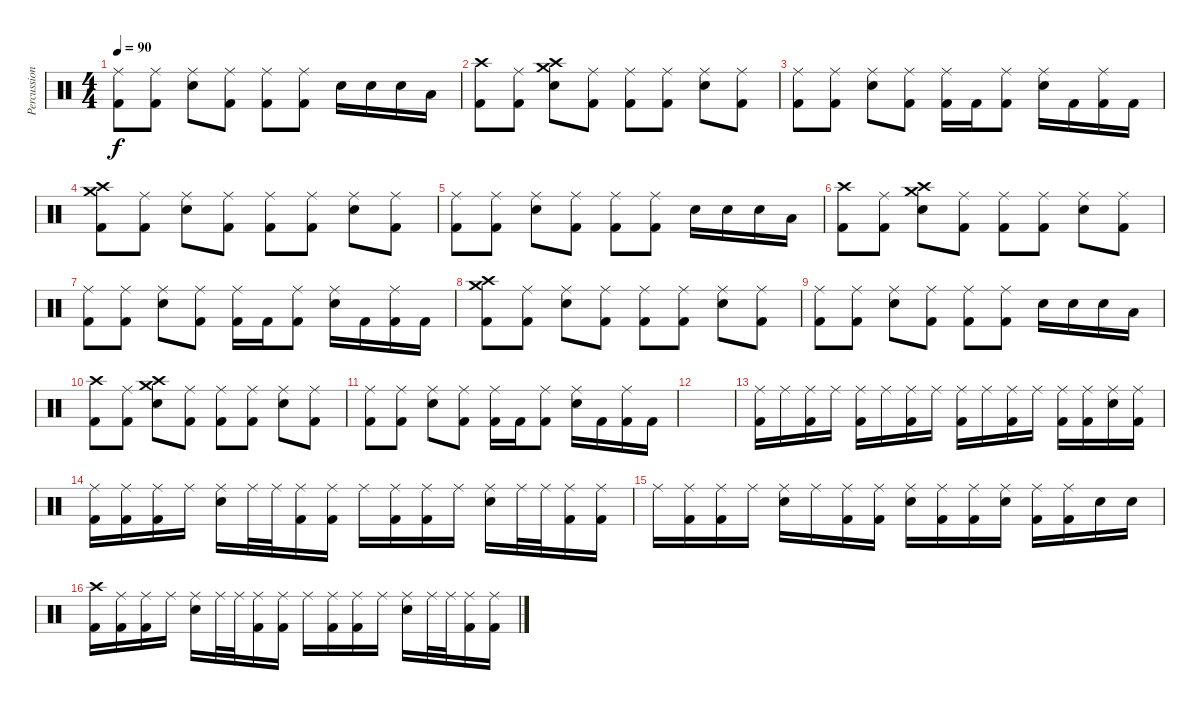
\track ("Percussion" "Percussion") {instrument percussion}
\staff {score}
\articulation defaults
\ts (4 4)
\tempo 90
\clef neutral
\ks c
("Ride (middle)" "Kick (hit) 2").8{dy f} ("Ride (middle)" "Kick (hit) 2").8 ("Ride (middle)" "Electric Snare (hit)").8 ("Ride (middle)" "Kick (hit) 2").8 ("Ride (middle)" "Kick (hit) 2").8 ("Ride (middle)" "Kick (hit) 2").8 "Electric Snare (hit)".16 "Electric Snare (hit)".16 "Electric Snare (hit)".16 "Low Tom (hit)".16 |
("Crash high (hit)" "Kick (hit) 2").8 ("Ride (middle)" "Kick (hit) 2").8 ("Crash medium (hit)" "Crash high (hit)" "Electric Snare (hit)").8 ("Ride (middle)" "Kick (hit) 2").8 ("Ride (middle)" "Kick (hit) 2").8 ("Ride (middle)" "Kick (hit) 2").8 ("Ride (middle)" "Electric Snare (hit)").8 ("Ride (middle)" "Kick (hit) 2").8 |
("Ride (middle)" "Kick (hit) 2").8 ("Ride (middle)" "Kick (hit) 2").8 ("Ride (middle)" "Electric Snare (hit)").8 ("Ride (middle)" "Kick (hit) 2").8 ("Ride (middle)" "Kick (hit) 2").16 "Kick (hit) 2".16 ("Ride (middle)" "Kick (hit) 2").8 ("Ride (middle)" "Electric Snare (hit)").16 "Kick (hit) 2".16 ("Ride (middle)" "Kick (hit) 2").16 "Kick (hit) 2".16 |
("Crash medium (hit)" "Crash high (hit)" "Kick (hit) 2").8 ("Ride (middle)" "Kick (hit) 2").8 ("Ride (middle)" "Electric Snare (hit)").8 ("Ride (middle)" "Kick (hit) 2").8 ("Ride (middle)" "Kick (hit) 2").8 ("Ride (middle)" "Kick (hit) 2").8 ("Ride (middle)" "Electric Snare (hit)").8 ("Ride (middle)" "Kick (hit) 2").8 |
("Ride (middle)" "Kick (hit) 2").8 ("Ride (middle)" "Kick (hit) 2").8 ("Ride (middle)" "Electric Snare (hit)").8 ("Ride (middle)" "Kick (hit) 2").8 ("Ride (middle)" "Kick (hit) 2").8 ("Ride (middle)" "Kick (hit) 2").8 "Electric Snare (hit)".16 "Electric Snare (hit)".16 "Electric Snare (hit)".16 "Low Tom (hit)".16 |
("Crash high (hit)" "Kick (hit) 2").8 ("Ride (middle)" "Kick (hit) 2").8 ("Crash medium (hit)" "Crash high (hit)" "Electric Snare (hit)").8 ("Ride (middle)" "Kick (hit) 2").8 ("Ride (middle)" "Kick (hit) 2").8 ("Ride (middle)" "Kick (hit) 2").8 ("Ride (middle)" "Electric Snare (hit)").8 ("Ride (middle)" "Kick (hit) 2").8 |
("Ride (middle)" "Kick (hit) 2").8 ("Ride (middle)" "Kick (hit) 2").8 ("Ride (middle)" "Electric Snare (hit)").8 ("Ride (middle)" "Kick (hit) 2").8 ("Ride (middle)" "Kick (hit) 2").16 "Kick (hit) 2".16 ("Ride (middle)" "Kick (hit) 2").8 ("Ride (middle)" "Electric Snare (hit)").16 "Kick (hit) 2".16 ("Ride (middle)" "Kick (hit) 2").16 "Kick (hit) 2".16 |
("Crash medium (hit)" "Crash high (hit)" "Kick (hit) 2").8 ("Ride (middle)" "Kick (hit) 2").8 ("Ride (middle)" "Electric Snare (hit)").8 ("Ride (middle)" "Kick (hit) 2").8 ("Ride (middle)" "Kick (hit) 2").8 ("Ride (middle)" "Kick (hit) 2").8 ("Ride (middle)" "Electric Snare (hit)").8 ("Ride (middle)" "Kick (hit) 2").8 |
("Ride (middle)" "Kick (hit) 2").8 ("Ride (middle)" "Kick (hit) 2").8 ("Ride (middle)" "Electric Snare (hit)").8 ("Ride (middle)" "Kick (hit) 2").8 ("Ride (middle)" "Kick (hit) 2").8 ("Ride (middle)" "Kick (hit) 2").8 "Electric Snare (hit)".16 "Electric Snare (hit)".16 "Electric Snare (hit)".16 "Low Tom (hit)".16 |
("Crash high (hit)" "Kick (hit) 2").8 ("Ride (middle)" "Kick (hit) 2").8 ("Crash medium (hit)" "Crash high (hit)" "Electric Snare (hit)").8 ("Ride (middle)" "Kick (hit) 2").8 ("Ride (middle)" "Kick (hit) 2").8 ("Ride (middle)" "Kick (hit) 2").8 ("Ride (middle)" "Electric Snare (hit)").8 ("Ride (middle)" "Kick (hit) 2").8 |
("Ride (middle)" "Kick (hit) 2").8 ("Ride (middle)" "Kick (hit) 2").8 ("Ride (middle)" "Electric Snare (hit)").8 ("Ride (middle)" "Kick (hit) 2").8 ("Ride (middle)" "Kick (hit) 2").16 "Kick (hit) 2".16 ("Ride (middle)" "Kick (hit) 2").8 ("Ride (middle)" "Electric Snare (hit)").16 "Kick (hit) 2".16 ("Ride (middle)" "Kick (hit) 2").16 "Kick (hit) 2".16 |
|
("Ride (middle)" "Kick (hit) 2").16 "Ride (middle)".16 ("Ride (middle)" "Kick (hit) 2").16 "Ride (middle)".16 ("Ride (middle)" "Kick (hit) 2").16 "Ride (middle)".16 ("Ride (middle)" "Kick (hit) 2").16 "Ride (middle)".16 ("Ride (middle)" "Kick (hit) 2").16 "Ride (middle)".16 ("Ride (middle)" "Kick (hit) 2").16 "Ride (middle)".16 ("Ride (middle)" "Kick (hit) 2").16 ("Ride (middle)" "Kick (hit) 2").16 ("Ride (middle)" "Electric Snare (hit)").16 ("Ride (middle)" "Kick (hit) 2").16 |
("Ride (middle)" "Kick (hit) 2").16 ("Ride (middle)" "Kick (hit) 2").16 ("Ride (middle)" "Kick (hit) 2").16 "Ride (middle)".16 ("Ride (middle)" "Electric Snare (hit)").16 "Ride (middle)".32 "Ride (middle)".32 ("Ride (middle)" "Kick (hit) 2").16 ("Ride (middle)" "Kick (hit) 2").16 "Ride (middle)".16 ("Ride (middle)" "Kick (hit) 2").16 ("Ride (middle)" "Kick (hit) 2").16 "Ride (middle)".16 ("Ride (middle)" "Electric Snare (hit)").16 "Ride (middle)".32 "Ride (middle)".32 ("Ride (middle)" "Kick (hit) 2").16 ("Ride (middle)" "Kick (hit) 2").16 |
"Ride (middle)".16 ("Ride (middle)" "Kick (hit) 2").16 ("Ride (middle)" "Kick (hit) 2").16 "Ride (middle)".16 ("Ride (middle)" "Electric Snare (hit)").16 "Ride (middle)".16 ("Ride (middle)" "Kick (hit) 2").16 ("Ride (middle)" "Kick (hit) 2").16 ("Ride (middle)" "Electric Snare (hit)").16 ("Ride (middle)" "Kick (hit) 2").16 ("Ride (middle)" "Kick (hit) 2").16 ("Ride (middle)" "Electric Snare (hit)").16 ("Ride (middle)" "Kick (hit) 2").16 ("Ride (middle)" "Kick (hit) 2").16 "Electric Snare (hit)".16 "Electric Snare (hit)".16 |
("Crash high (hit)" "Kick (hit) 2").16 ("Ride (middle)" "Kick (hit) 2").16 ("Ride (middle)" "Kick (hit) 2").16 "Ride (middle)".16 ("Ride (middle)" "Electric Snare (hit)").16 "Ride (middle)".32 "Ride (middle)".32 ("Ride (middle)" "Kick (hit) 2").16 ("Ride (middle)" "Kick (hit) 2").16 "Ride (middle)".16 ("Ride (middle)" "Kick (hit) 2").16 ("Ride (middle)" "Kick (hit) 2").16 "Ride (middle)".16 ("Ride (middle)" "Electric Snare (hit)").16 "Ride (middle)".32 "Ride (middle)".32 ("Ride (middle)" "Kick (hit) 2").16 ("Ride (middle)" "Kick (hit) 2").16
